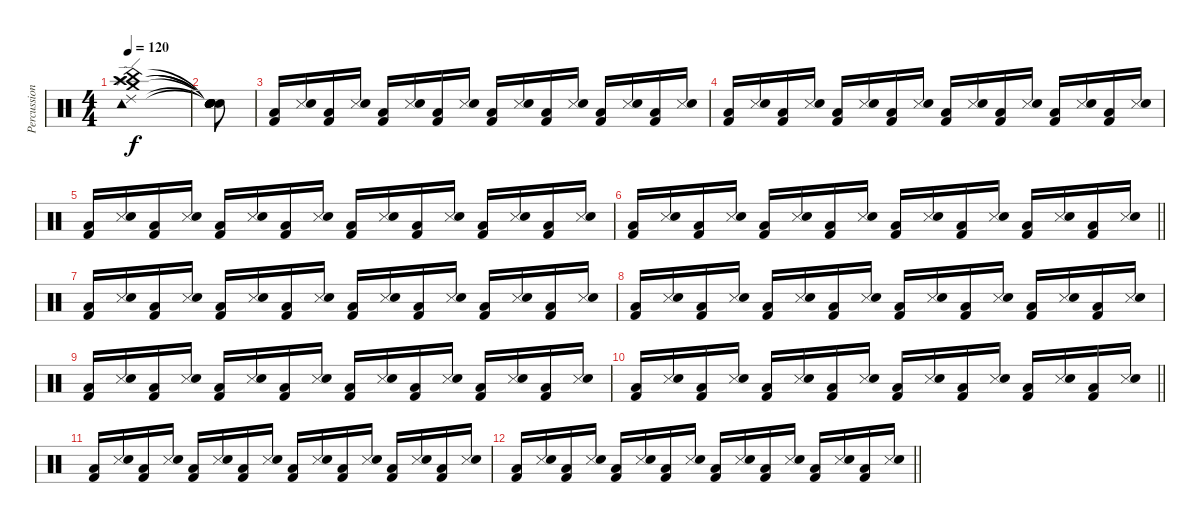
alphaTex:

\track ("Percussion" "Percussion") {instrument percussion}
\staff {score}
\articulation defaults
\ts (4 4)
\tempo 120
\clef neutral
\ks c
("Tambourine (hit)" "China (hit)" "Crash medium (hit)" "Crash high (hit)" "Ride (edge) 2" "Splash (hit)").1{dy f} |
("Snare (hit)"{t} "Snare (hit)"{t} "Snare (hit)"{t} "Snare (hit)"{t} "Snare (hit)"{t} "Snare (hit)"{t}).8 |
("Low Tom (hit)" "Kick (hit) 2").16 ("Snare (side stick) 3" "Electric Snare (hit)").16 ("Low Tom (hit)" "Kick (hit) 2").16 ("Snare (side stick) 3" "Electric Snare (hit)").16 ("Low Tom (hit)" "Kick (hit) 2").16 ("Snare (side stick) 3" "Electric Snare (hit)").16 ("Low Tom (hit)" "Kick (hit) 2").16 ("Snare (side stick) 3" "Electric Snare (hit)").16 ("Low Tom (hit)" "Kick (hit) 2").16 ("Snare (side stick) 3" "Electric Snare (hit)").16 ("Low Tom (hit)" "Kick (hit) 2").16 ("Snare (side stick) 3" "Electric Snare (hit)").16 ("Low Tom (hit)" "Kick (hit) 2").16 ("Snare (side stick) 3" "Electric Snare (hit)").16 ("Low Tom (hit)" "Kick (hit) 2").16 ("Snare (side stick) 3" "Electric Snare (hit)").16 |
("Low Tom (hit)" "Kick (hit) 2").16 ("Snare (side stick) 3" "Electric Snare (hit)").16 ("Low Tom (hit)" "Kick (hit) 2").16 ("Snare (side stick) 3" "Electric Snare (hit)").16 ("Low Tom (hit)" "Kick (hit) 2").16 ("Snare (side stick) 3" "Electric Snare (hit)").16 ("Low Tom (hit)" "Kick (hit) 2").16 ("Snare (side stick) 3" "Electric Snare (hit)").16 ("Low Tom (hit)" "Kick (hit) 2").16 ("Snare (side stick) 3" "Electric Snare (hit)").16 ("Low Tom (hit)" "Kick (hit) 2").16 ("Snare (side stick) 3" "Electric Snare (hit)").16 ("Low Tom (hit)" "Kick (hit) 2").16 ("Snare (side stick) 3" "Electric Snare (hit)").16 ("Low Tom (hit)" "Kick (hit) 2").16 ("Snare (side stick) 3" "Electric Snare (hit)").16 |
("Low Tom (hit)" "Kick (hit) 2").16 ("Snare (side stick) 3" "Electric Snare (hit)").16 ("Low Tom (hit)" "Kick (hit) 2").16 ("Snare (side stick) 3" "Electric Snare (hit)").16 ("Low Tom (hit)" "Kick (hit) 2").16 ("Snare (side stick) 3" "Electric Snare (hit)").16 ("Low Tom (hit)" "Kick (hit) 2").16 ("Snare (side stick) 3" "Electric Snare (hit)").16 ("Low Tom (hit)" "Kick (hit) 2").16 ("Snare (side stick) 3" "Electric Snare (hit)").16 ("Low Tom (hit)" "Kick (hit) 2").16 ("Snare (side stick) 3" "Electric Snare (hit)").16 ("Low Tom (hit)" "Kick (hit) 2").16 ("Snare (side stick) 3" "Electric Snare (hit)").16 ("Low Tom (hit)" "Kick (hit) 2").16 ("Snare (side stick) 3" "Electric Snare (hit)").16 |
\barLineRight lightlight
("Low Tom (hit)" "Kick (hit) 2").16 ("Snare (side stick) 3" "Electric Snare (hit)").16 ("Low Tom (hit)" "Kick (hit) 2").16 ("Snare (side stick) 3" "Electric Snare (hit)").16 ("Low Tom (hit)" "Kick (hit) 2").16 ("Snare (side stick) 3" "Electric Snare (hit)").16 ("Low Tom (hit)" "Kick (hit) 2").16 ("Snare (side stick) 3" "Electric Snare (hit)").16 ("Low Tom (hit)" "Kick (hit) 2").16 ("Snare (side stick) 3" "Electric Snare (hit)").16 ("Low Tom (hit)" "Kick (hit) 2").16 ("Snare (side stick) 3" "Electric Snare (hit)").16 ("Low Tom (hit)" "Kick (hit) 2").16 ("Snare (side stick) 3" "Electric Snare (hit)").16 ("Low Tom (hit)" "Kick (hit) 2").16 ("Snare (side stick) 3" "Electric Snare (hit)").16 |
("Low Tom (hit)" "Kick (hit) 2").16 ("Snare (side stick) 3" "Electric Snare (hit)").16 ("Low Tom (hit)" "Kick (hit) 2").16 ("Snare (side stick) 3" "Electric Snare (hit)").16 ("Low Tom (hit)" "Kick (hit) 2").16 ("Snare (side stick) 3" "Electric Snare (hit)").16 ("Low Tom (hit)" "Kick (hit) 2").16 ("Snare (side stick) 3" "Electric Snare (hit)").16 ("Low Tom (hit)" "Kick (hit) 2").16 ("Snare (side stick) 3" "Electric Snare (hit)").16 ("Low Tom (hit)" "Kick (hit) 2").16 ("Snare (side stick) 3" "Electric Snare (hit)").16 ("Low Tom (hit)" "Kick (hit) 2").16 ("Snare (side stick) 3" "Electric Snare (hit)").16 ("Low Tom (hit)" "Kick (hit) 2").16 ("Snare (side stick) 3" "Electric Snare (hit)").16 |
("Low Tom (hit)" "Kick (hit) 2").16 ("Snare (side stick) 3" "Electric Snare (hit)").16 ("Low Tom (hit)" "Kick (hit) 2").16 ("Snare (side stick) 3" "Electric Snare (hit)").16 ("Low Tom (hit)" "Kick (hit) 2").16 ("Snare (side stick) 3" "Electric Snare (hit)").16 ("Low Tom (hit)" "Kick (hit) 2").16 ("Snare (side stick) 3" "Electric Snare (hit)").16 ("Low Tom (hit)" "Kick (hit) 2").16 ("Snare (side stick) 3" "Electric Snare (hit)").16 ("Low Tom (hit)" "Kick (hit) 2").16 ("Snare (side stick) 3" "Electric Snare (hit)").16 ("Low Tom (hit)" "Kick (hit) 2").16 ("Snare (side stick) 3" "Electric Snare (hit)").16 ("Low Tom (hit)" "Kick (hit) 2").16 ("Snare (side stick) 3" "Electric Snare (hit)").16 |
("Low Tom (hit)" "Kick (hit) 2").16 ("Snare (side stick) 3" "Electric Snare (hit)").16 ("Low Tom (hit)" "Kick (hit) 2").16 ("Snare (side stick) 3" "Electric Snare (hit)").16 ("Low Tom (hit)" "Kick (hit) 2").16 ("Snare (side stick) 3" "Electric Snare (hit)").16 ("Low Tom (hit)" "Kick (hit) 2").16 ("Snare (side stick) 3" "Electric Snare (hit)").16 ("Low Tom (hit)" "Kick (hit) 2").16 ("Snare (side stick) 3" "Electric Snare (hit)").16 ("Low Tom (hit)" "Kick (hit) 2").16 ("Snare (side stick) 3" "Electric Snare (hit)").16 ("Low Tom (hit)" "Kick (hit) 2").16 ("Snare (side stick) 3" "Electric Snare (hit)").16 ("Low Tom (hit)" "Kick (hit) 2").16 ("Snare (side stick) 3" "Electric Snare (hit)").16 |
\barLineRight lightlight
("Low Tom (hit)" "Kick (hit) 2").16 ("Snare (side stick) 3" "Electric Snare (hit)").16 ("Low Tom (hit)" "Kick (hit) 2").16 ("Snare (side stick) 3" "Electric Snare (hit)").16 ("Low Tom (hit)" "Kick (hit) 2").16 ("Snare (side stick) 3" "Electric Snare (hit)").16 ("Low Tom (hit)" "Kick (hit) 2").16 ("Snare (side stick) 3" "Electric Snare (hit)").16 ("Low Tom (hit)" "Kick (hit) 2").16 ("Snare (side stick) 3" "Electric Snare (hit)").16 ("Low Tom (hit)" "Kick (hit) 2").16 ("Snare (side stick) 3" "Electric Snare (hit)").16 ("Low Tom (hit)" "Kick (hit) 2").16 ("Snare (side stick) 3" "Electric Snare (hit)").16 ("Low Tom (hit)" "Kick (hit) 2").16 ("Snare (side stick) 3" "Electric Snare (hit)").16 |
("Low Tom (hit)" "Kick (hit) 2").16 ("Snare (side stick) 3" "Electric Snare (hit)").16 ("Low Tom (hit)" "Kick (hit) 2").16 ("Snare (side stick) 3" "Electric Snare (hit)").16 ("Low Tom (hit)" "Kick (hit) 2").16 ("Snare (side stick) 3" "Electric Snare (hit)").16 ("Low Tom (hit)" "Kick (hit) 2").16 ("Snare (side stick) 3" "Electric Snare (hit)").16 ("Low Tom (hit)" "Kick (hit) 2").16 ("Snare (side stick) 3" "Electric Snare (hit)").16 ("Low Tom (hit)" "Kick (hit) 2").16 ("Snare (side stick) 3" "Electric Snare (hit)").16 ("Low Tom (hit)" "Kick (hit) 2").16 ("Snare (side stick) 3" "Electric Snare (hit)").16 ("Low Tom (hit)" "Kick (hit) 2").16 ("Snare (side stick) 3" "Electric Snare (hit)").16 |
\barLineRight lightlight
("Low Tom (hit)" "Kick (hit) 2").16 ("Snare (side stick) 3" "Electric Snare (hit)").16 ("Low Tom (hit)" "Kick (hit) 2").16 ("Snare (side stick) 3" "Electric Snare (hit)").16 ("Low Tom (hit)" "Kick (hit) 2").16 ("Snare (side stick) 3" "Electric Snare (hit)").16 ("Low Tom (hit)" "Kick (hit) 2").16 ("Snare (side stick) 3" "Electric Snare (hit)").16 ("Low Tom (hit)" "Kick (hit) 2").16 ("Snare (side stick) 3" "Electric Snare (hit)").16 ("Low Tom (hit)" "Kick (hit) 2").16 ("Snare (side stick) 3" "Electric Snare (hit)").16 ("Low Tom (hit)" "Kick (hit) 2").16 ("Snare (side stick) 3" "Electric Snare (hit)").16 ("Low Tom (hit)" "Kick (hit) 2").16 ("Snare (side stick) 3" "Electric Snare (hit)").16
